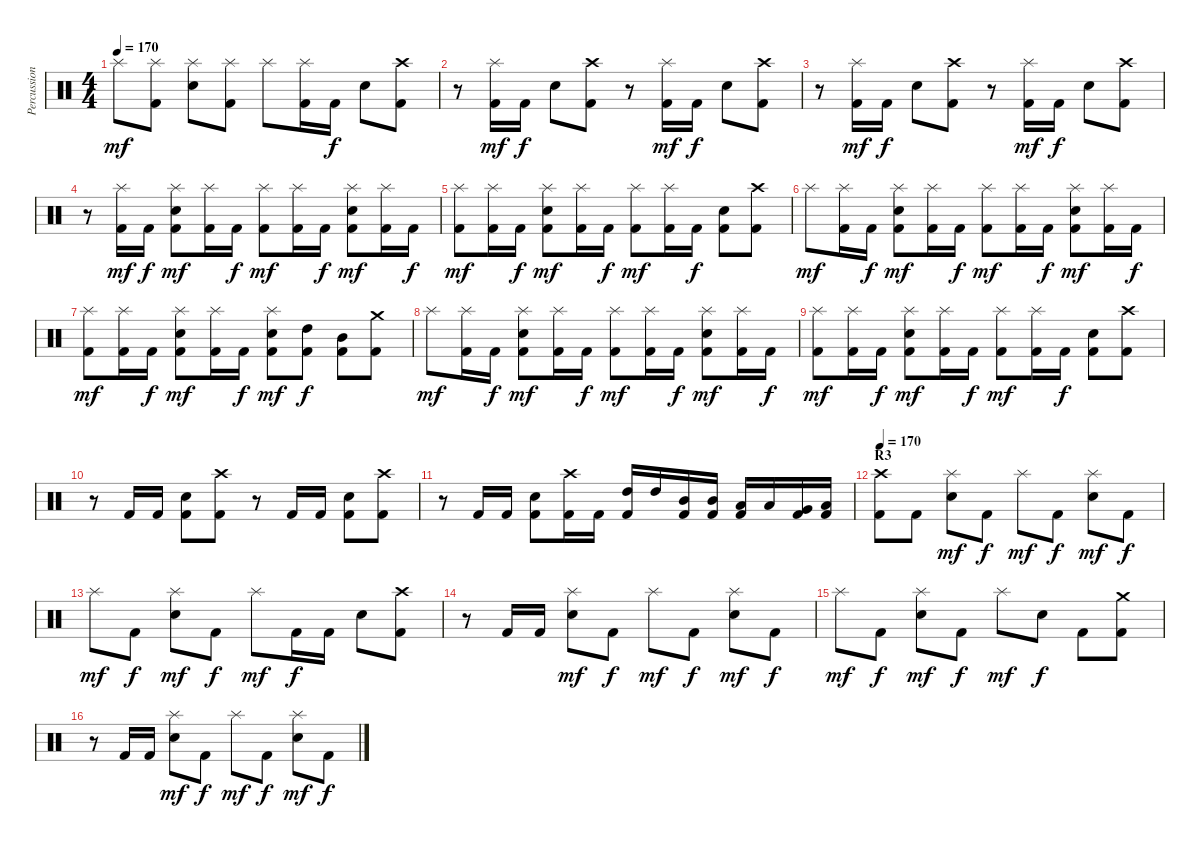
\track ("Percussion" "Percussion") {instrument percussion}
\staff {score}
\articulation defaults
\ts (4 4)
\tempo 170
\clef neutral
\ks c "Splash (hit)".8{dy mf}
("Splash (hit)" "Kick (hit) 2").8 ("Splash (hit)" "Electric Snare (hit)").8 ("Splash (hit)" "Kick (hit) 2").8 "Splash (hit)".8 ("Splash (hit)" "Kick (hit) 2").16 "Kick (hit) 2".16{dy f} "Electric Snare (hit)".8 ("Crash high (hit)" "Kick (hit) 2").8 |
r.8 ("Splash (hit)" "Kick (hit) 2").16{dy mf} "Kick (hit) 2".16{dy f} "Electric Snare (hit)".8 ("Crash high (hit)" "Kick (hit) 2").8 r.8 ("Splash (hit)" "Kick (hit) 2").16{dy mf} "Kick (hit) 2".16{dy f} "Electric Snare (hit)".8 ("Crash high (hit)" "Kick (hit) 2").8 |
r.8 ("Splash (hit)" "Kick (hit) 2").16{dy mf} "Kick (hit) 2".16{dy f} "Electric Snare (hit)".8 ("Crash high (hit)" "Kick (hit) 2").8 r.8 ("Splash (hit)" "Kick (hit) 2").16{dy mf} "Kick (hit) 2".16{dy f} "Electric Snare (hit)".8 ("Crash high (hit)" "Kick (hit) 2").8 |
\section ("" "")
r.8 ("Splash (hit)" "Kick (hit) 2").16{dy mf} "Kick (hit) 2".16{dy f} ("Splash (hit)" "Electric Snare (hit)" "Kick (hit) 2").8{dy mf} ("Splash (hit)" "Kick (hit) 2").16 "Kick (hit) 2".16{dy f} ("Splash (hit)" "Kick (hit) 2").8{dy mf} ("Splash (hit)" "Kick (hit) 2").16 "Kick (hit) 2".16{dy f} ("Splash (hit)" "Electric Snare (hit)" "Kick (hit) 2").8{dy mf} ("Splash (hit)" "Kick (hit) 2").16 "Kick (hit) 2".16{dy f} |
("Splash (hit)" "Kick (hit) 2").8{dy mf} ("Splash (hit)" "Kick (hit) 2").16 "Kick (hit) 2".16{dy f} ("Splash (hit)" "Electric Snare (hit)" "Kick (hit) 2").8{dy mf} ("Splash (hit)" "Kick (hit) 2").16 "Kick (hit) 2".16{dy f} ("Splash (hit)" "Kick (hit) 2").8{dy mf} ("Splash (hit)" "Kick (hit) 2").16 "Kick (hit) 2".16{dy f} ("Electric Snare (hit)" "Kick (hit) 2").8 ("Crash high (hit)" "Kick (hit) 2").8 |
"Splash (hit)".8{dy mf} ("Splash (hit)" "Kick (hit) 2").16 "Kick (hit) 2".16{dy f} ("Splash (hit)" "Electric Snare (hit)" "Kick (hit) 2").8{dy mf} ("Splash (hit)" "Kick (hit) 2").16 "Kick (hit) 2".16{dy f} ("Splash (hit)" "Kick (hit) 2").8{dy mf} ("Splash (hit)" "Kick (hit) 2").16 "Kick (hit) 2".16{dy f} ("Splash (hit)" "Electric Snare (hit)" "Kick (hit) 2").8{dy mf} ("Splash (hit)" "Kick (hit) 2").16 "Kick (hit) 2".16{dy f} |
("Splash (hit)" "Kick (hit) 2").8{dy mf} ("Splash (hit)" "Kick (hit) 2").16 "Kick (hit) 2".16{dy f} ("Splash (hit)" "Electric Snare (hit)" "Kick (hit) 2").8{dy mf} ("Splash (hit)" "Kick (hit) 2").16 "Kick (hit) 2".16{dy f} ("Splash (hit)" "Electric Snare (hit)" "Kick (hit) 2").8{dy mf} ("High Tom (hit)" "Kick (hit) 2").8{dy f} ("Mid Tom (hit)" "Kick (hit) 2").8 ("Crash medium (hit)" "Kick (hit) 2").8 |
"Splash (hit)".8{dy mf} ("Splash (hit)" "Kick (hit) 2").16 "Kick (hit) 2".16{dy f} ("Splash (hit)" "Electric Snare (hit)" "Kick (hit) 2").8{dy mf} ("Splash (hit)" "Kick (hit) 2").16 "Kick (hit) 2".16{dy f} ("Splash (hit)" "Kick (hit) 2").8{dy mf} ("Splash (hit)" "Kick (hit) 2").16 "Kick (hit) 2".16{dy f} ("Splash (hit)" "Electric Snare (hit)" "Kick (hit) 2").8{dy mf} ("Splash (hit)" "Kick (hit) 2").16 "Kick (hit) 2".16{dy f} |
("Splash (hit)" "Kick (hit) 2").8{dy mf} ("Splash (hit)" "Kick (hit) 2").16 "Kick (hit) 2".16{dy f} ("Splash (hit)" "Electric Snare (hit)" "Kick (hit) 2").8{dy mf} ("Splash (hit)" "Kick (hit) 2").16 "Kick (hit) 2".16{dy f} ("Splash (hit)" "Kick (hit) 2").8{dy mf} ("Splash (hit)" "Kick (hit) 2").16 "Kick (hit) 2".16{dy f} ("Electric Snare (hit)" "Kick (hit) 2").8 ("Crash high (hit)" "Kick (hit) 2").8 |
r.8 "Kick (hit) 2".16 "Kick (hit) 2".16 ("Electric Snare (hit)" "Kick (hit) 2").8 ("Crash high (hit)" "Kick (hit) 2").8 r.8 "Kick (hit) 2".16 "Kick (hit) 2".16 ("Electric Snare (hit)" "Kick (hit) 2").8 ("Crash high (hit)" "Kick (hit) 2").8 |
r.8 "Kick (hit) 2".16 "Kick (hit) 2".16 ("Electric Snare (hit)" "Kick (hit) 2").8 ("Crash high (hit)" "Kick (hit) 2").16 "Kick (hit) 2".16 ("High Tom (hit)" "Kick (hit) 2").16 "High Tom (hit)".16 ("Mid Tom (hit)" "Kick (hit) 2").16 ("Mid Tom (hit)" "Kick (hit) 2").16 ("Low Tom (hit)" "Kick (hit) 2").16 "Low Tom (hit)".16 ("Very Low Tom (hit)" "Kick (hit) 2").16 ("Low Floor Tom (hit)" "Kick (hit) 2").16 |
\section ("" "R3")
\tempo 170
("Crash high (hit)" "Kick (hit) 2").8 "Kick (hit) 2".8 ("Splash (hit)" "Electric Snare (hit)").8{dy mf} "Kick (hit) 2".8{dy f} "Splash (hit)".8{dy mf} "Kick (hit) 2".8{dy f} ("Splash (hit)" "Electric Snare (hit)").8{dy mf} "Kick (hit) 2".8{dy f} |
"Splash (hit)".8{dy mf} "Kick (hit) 2".8{dy f} ("Splash (hit)" "Electric Snare (hit)").8{dy mf} "Kick (hit) 2".8{dy f} "Splash (hit)".8{dy mf} "Kick (hit) 2".16{dy f} "Kick (hit) 2".16 "Electric Snare (hit)".8 ("Crash high (hit)" "Kick (hit) 2").8 |
r.8 "Kick (hit) 2".16 "Kick (hit) 2".16 ("Splash (hit)" "Electric Snare (hit)").8{dy mf} "Kick (hit) 2".8{dy f} "Splash (hit)".8{dy mf} "Kick (hit) 2".8{dy f} ("Splash (hit)" "Electric Snare (hit)").8{dy mf} "Kick (hit) 2".8{dy f} |
"Splash (hit)".8{dy mf} "Kick (hit) 2".8{dy f} ("Splash (hit)" "Electric Snare (hit)").8{dy mf} "Kick (hit) 2".8{dy f} "Splash (hit)".8{dy mf} "Electric Snare (hit)".8{dy f} "Kick (hit) 2".8 ("Crash medium (hit)" "Kick (hit) 2").8 |
r.8 "Kick (hit) 2".16 "Kick (hit) 2".16 ("Splash (hit)" "Electric Snare (hit)").8{dy mf} "Kick (hit) 2".8{dy f} "Splash (hit)".8{dy mf} "Kick (hit) 2".8{dy f} ("Splash (hit)" "Electric Snare (hit)").8{dy mf} "Kick (hit) 2".8{dy f}
